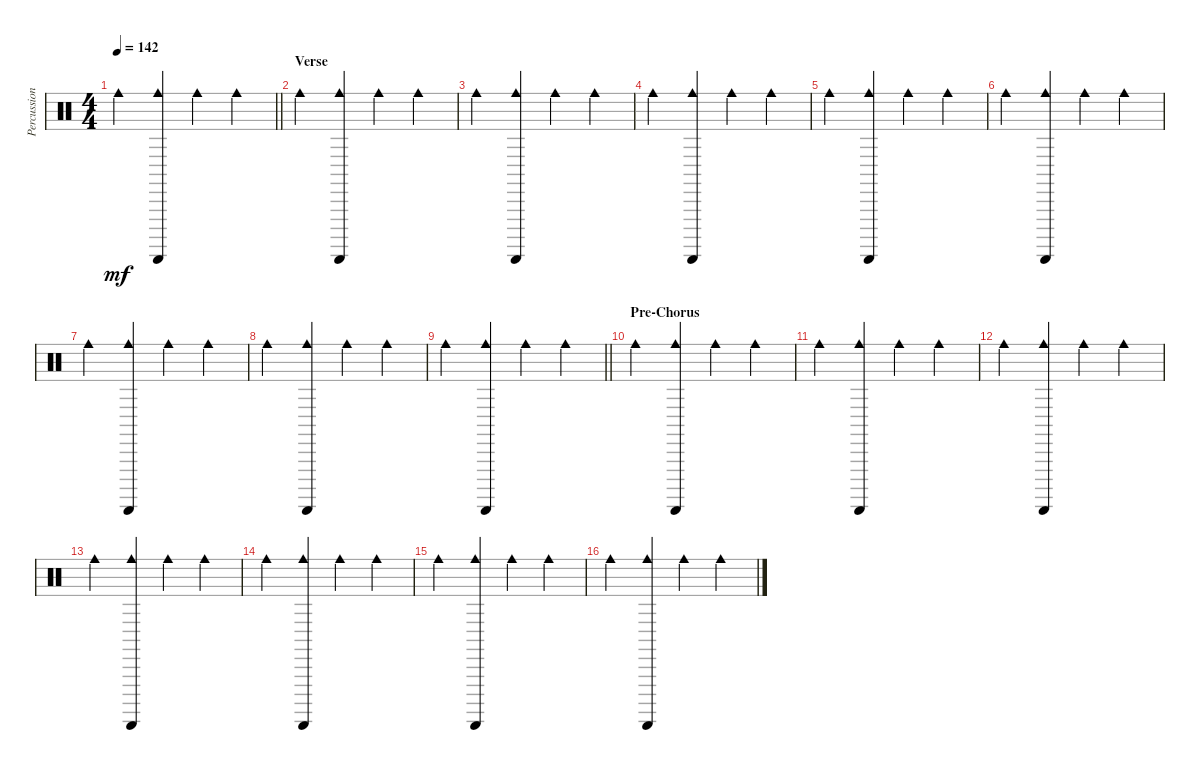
\track ("Percussion" "Percussion") {instrument percussion}
\staff {score}
\articulation defaults
\ts (4 4)
\tempo 142
\clef neutral
\barLineRight lightlight
\ks c "Cowbell medium (hit)".4{dy mf}
("Guiro (scrap-return)" "Cowbell medium (hit)").4 "Cowbell medium (hit)".4 "Cowbell medium (hit)".4 |
\section ("" "Verse")
"Cowbell medium (hit)".4 ("Guiro (scrap-return)" "Cowbell medium (hit)").4 "Cowbell medium (hit)".4 "Cowbell medium (hit)".4 |
"Cowbell medium (hit)".4 ("Guiro (scrap-return)" "Cowbell medium (hit)").4 "Cowbell medium (hit)".4 "Cowbell medium (hit)".4 |
"Cowbell medium (hit)".4 ("Guiro (scrap-return)" "Cowbell medium (hit)").4 "Cowbell medium (hit)".4 "Cowbell medium (hit)".4 |
"Cowbell medium (hit)".4 ("Guiro (scrap-return)" "Cowbell medium (hit)").4 "Cowbell medium (hit)".4 "Cowbell medium (hit)".4 |
"Cowbell medium (hit)".4 ("Guiro (scrap-return)" "Cowbell medium (hit)").4 "Cowbell medium (hit)".4 "Cowbell medium (hit)".4 |
"Cowbell medium (hit)".4 ("Guiro (scrap-return)" "Cowbell medium (hit)").4 "Cowbell medium (hit)".4 "Cowbell medium (hit)".4 |
"Cowbell medium (hit)".4 ("Guiro (scrap-return)" "Cowbell medium (hit)").4 "Cowbell medium (hit)".4 "Cowbell medium (hit)".4 |
\barLineRight lightlight "Cowbell medium (hit)".4
("Guiro (scrap-return)" "Cowbell medium (hit)").4 "Cowbell medium (hit)".4 "Cowbell medium (hit)".4 |
\section ("" "Pre-Chorus")
"Cowbell medium (hit)".4 ("Guiro (scrap-return)" "Cowbell medium (hit)").4 "Cowbell medium (hit)".4 "Cowbell medium (hit)".4 |
"Cowbell medium (hit)".4 ("Guiro (scrap-return)" "Cowbell medium (hit)").4 "Cowbell medium (hit)".4 "Cowbell medium (hit)".4 |
"Cowbell medium (hit)".4 ("Guiro (scrap-return)" "Cowbell medium (hit)").4 "Cowbell medium (hit)".4 "Cowbell medium (hit)".4 |
"Cowbell medium (hit)".4 ("Guiro (scrap-return)" "Cowbell medium (hit)").4 "Cowbell medium (hit)".4 "Cowbell medium (hit)".4 |
"Cowbell medium (hit)".4 ("Guiro (scrap-return)" "Cowbell medium (hit)").4 "Cowbell medium (hit)".4 "Cowbell medium (hit)".4 |
"Cowbell medium (hit)".4 ("Guiro (scrap-return)" "Cowbell medium (hit)").4 "Cowbell medium (hit)".4 "Cowbell medium (hit)".4 |
"Cowbell medium (hit)".4 ("Guiro (scrap-return)" "Cowbell medium (hit)").4 "Cowbell medium (hit)".4 "Cowbell medium (hit)".4
